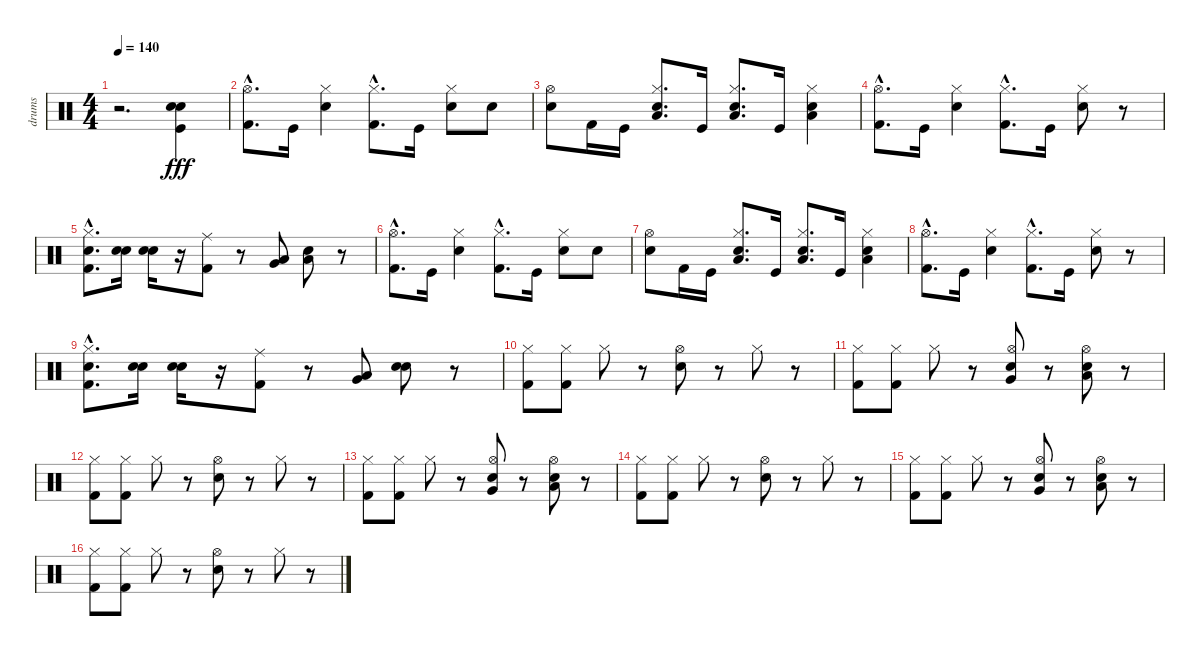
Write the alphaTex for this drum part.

\track ("drums" "drums") {instrument percussion}
\staff {score}
\articulation defaults
\ts (4 4)
\tempo 140
\clef neutral
\ks c
r.2{d dy fff} ("Electric Snare (hit)" "Kick (hit)" "Snare (hit) 2").4 |
("Hi-Hat (open)"{hac} "Kick (hit) 2"{hac}).8{d} "Kick (hit)".16 ("Hi-Hat (closed)" "Snare (hit) 2").4 ("Hi-Hat (closed)"{hac} "Kick (hit) 2"{hac}).8{d} "Kick (hit)".16 ("Hi-Hat (closed)" "Snare (hit) 2").8 "Snare (hit) 2".8 |
("Hi-Hat (open)" "Snare (hit) 2").8 "Kick (hit) 2".16 "Kick (hit)".16 ("Hi-Hat (closed)" "Low Tom (hit)" "Snare (hit) 2").8{d} "Kick (hit)".16 ("Hi-Hat (closed)" "Low Tom (hit)" "Snare (hit) 2").8{d} "Kick (hit)".16 ("Hi-Hat (closed)" "Low Tom (hit)" "Snare (hit) 2").4 |
("Hi-Hat (open)"{hac} "Kick (hit) 2"{hac}).8{d} "Kick (hit)".16 ("Hi-Hat (closed)" "Snare (hit) 2").4 ("Hi-Hat (closed)"{hac} "Kick (hit) 2"{hac}).8{d} "Kick (hit)".16 ("Hi-Hat (closed)" "Snare (hit) 2").8 r.8 |
("Hi-Hat (closed)" "Snare (hit) 2"{hac} "Kick (hit) 2").8{d} ("Electric Snare (hit)" "Snare (hit) 2").16 ("Snare (hit) 2" "Electric Snare (hit)").16 r.16 ("Ride (middle)" "Kick (hit) 2").8 r.8 ("Very Low Tom (hit)" "Low Tom (hit)").8 ("Low Tom (hit)" "Snare (hit) 2").8 r.8 |
("Hi-Hat (open)"{hac} "Kick (hit) 2"{hac}).8{d} "Kick (hit)".16 ("Hi-Hat (closed)" "Snare (hit) 2").4 ("Hi-Hat (closed)"{hac} "Kick (hit) 2"{hac}).8{d} "Kick (hit)".16 ("Hi-Hat (closed)" "Snare (hit) 2").8 "Snare (hit) 2".8 |
("Hi-Hat (open)" "Snare (hit) 2").8 "Kick (hit) 2".16 "Kick (hit)".16 ("Hi-Hat (closed)" "Low Tom (hit)" "Snare (hit) 2").8{d} "Kick (hit)".16 ("Hi-Hat (closed)" "Low Tom (hit)" "Snare (hit) 2").8{d} "Kick (hit)".16 ("Hi-Hat (closed)" "Low Tom (hit)" "Snare (hit) 2").4 |
("Hi-Hat (open)"{hac} "Kick (hit) 2"{hac}).8{d} "Kick (hit)".16 ("Hi-Hat (closed)" "Snare (hit) 2").4 ("Hi-Hat (closed)"{hac} "Kick (hit) 2"{hac}).8{d} "Kick (hit)".16 ("Hi-Hat (closed)" "Snare (hit) 2").8 r.8 |
("Hi-Hat (closed)" "Snare (hit) 2"{hac} "Kick (hit) 2").8{d} ("Electric Snare (hit)" "Snare (hit) 2").16 ("Snare (hit) 2" "Electric Snare (hit)").16 r.16 ("Ride (middle)" "Kick (hit) 2").8 r.8 ("Very Low Tom (hit)" "Low Tom (hit)").8 ("Electric Snare (hit)" "Snare (hit) 2").8 r.8 |
("Hi-Hat (closed)" "Kick (hit) 2").8 ("Hi-Hat (closed)" "Kick (hit) 2").8 "Hi-Hat (closed)".8 r.8 ("Hi-Hat (open)" "Snare (hit) 2").8 r.8 "Hi-Hat (closed)".8 r.8 |
("Hi-Hat (closed)" "Kick (hit) 2").8 ("Hi-Hat (closed)" "Kick (hit) 2").8 "Hi-Hat (closed)".8 r.8 ("Very Low Tom (hit)" "Hi-Hat (open)" "Snare (hit) 2").8 r.8 ("Low Tom (hit)" "Snare (hit) 2" "Hi-Hat (open)").8 r.8 |
("Hi-Hat (closed)" "Kick (hit) 2").8 ("Hi-Hat (closed)" "Kick (hit) 2").8 "Hi-Hat (closed)".8 r.8 ("Hi-Hat (open)" "Snare (hit) 2").8 r.8 "Hi-Hat (closed)".8 r.8 |
("Hi-Hat (closed)" "Kick (hit) 2").8 ("Hi-Hat (closed)" "Kick (hit) 2").8 "Hi-Hat (closed)".8 r.8 ("Very Low Tom (hit)" "Hi-Hat (open)" "Snare (hit) 2").8 r.8 ("Low Tom (hit)" "Snare (hit) 2" "Hi-Hat (open)").8 r.8 |
("Hi-Hat (closed)" "Kick (hit) 2").8 ("Hi-Hat (closed)" "Kick (hit) 2").8 "Hi-Hat (closed)".8 r.8 ("Hi-Hat (open)" "Snare (hit) 2").8 r.8 "Hi-Hat (closed)".8 r.8 |
("Hi-Hat (closed)" "Kick (hit) 2").8 ("Hi-Hat (closed)" "Kick (hit) 2").8 "Hi-Hat (closed)".8 r.8 ("Very Low Tom (hit)" "Hi-Hat (open)" "Snare (hit) 2").8 r.8 ("Low Tom (hit)" "Snare (hit) 2" "Hi-Hat (open)").8 r.8 |
("Hi-Hat (closed)" "Kick (hit) 2").8 ("Hi-Hat (closed)" "Kick (hit) 2").8 "Hi-Hat (closed)".8 r.8 ("Hi-Hat (open)" "Snare (hit) 2").8 r.8 "Hi-Hat (closed)".8 r.8
